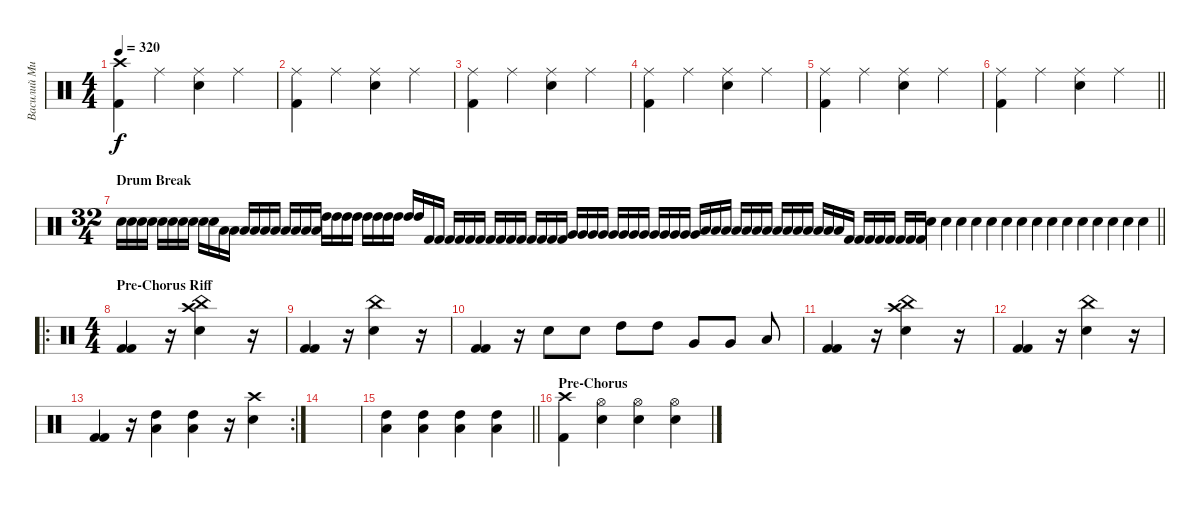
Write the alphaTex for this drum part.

\track ("Василий Михалыч-ударные" "Василий Ми") {instrument percussion}
\staff {score}
\articulation defaults
\ts (4 4)
\tempo 320
\clef neutral
\ks c
("Kick (hit) 2" "Crash high (hit)").4{dy f} "Ride (middle)".4 ("Snare (hit) 2" "Ride (middle)").4 "Ride (middle)".4 |
("Kick (hit) 2" "Ride (middle)").4 "Ride (middle)".4 ("Snare (hit) 2" "Ride (middle)").4 "Ride (middle)".4 |
("Kick (hit) 2" "Ride (middle)").4 "Ride (middle)".4 ("Snare (hit) 2" "Ride (middle)").4 "Ride (middle)".4 |
("Kick (hit) 2" "Ride (middle)").4 "Ride (middle)".4 ("Snare (hit) 2" "Ride (middle)").4 "Ride (middle)".4 |
("Kick (hit) 2" "Ride (middle)").4 "Ride (middle)".4 ("Snare (hit) 2" "Ride (middle)").4 "Ride (middle)".4 |
\barLineRight lightlight
("Kick (hit) 2" "Ride (middle)").4 "Ride (middle)".4 ("Snare (hit) 2" "Ride (middle)").4 "Ride (middle)".4 |
\ts (32 4)
\section ("" "Drum Break")
\barLineRight lightlight "Snare (hit) 2".16 "Snare (hit) 2".16 "Snare (hit) 2".16 "Snare (hit) 2".16 "Snare (hit) 2".16 "Snare (hit) 2".16 "Snare (hit) 2".16 "Snare (hit) 2".16 "Snare (hit) 2".16 "Snare (hit) 2".16 "Low Tom (hit)".16 "Low Tom (hit)".16 "Low Tom (hit)".16 "Low Tom (hit)".16 "Low Tom (hit)".16 "Low Tom (hit)".16 "Low Tom (hit)".16 "Low Tom (hit)".16 "Low Tom (hit)".16 "Low Tom (hit)".16 "High Tom (hit)".16 "High Tom (hit)".16 "High Tom (hit)".16 "High Tom (hit)".16 "High Tom (hit)".16 "High Tom (hit)".16 "High Tom (hit)".16 "High Tom (hit)".16 "High Tom (hit)".16 "High Tom (hit)".16 "Kick (hit) 2".16 "Kick (hit) 2".16 "Kick (hit) 2".16 "Kick (hit) 2".16 "Kick (hit) 2".16 "Kick (hit) 2".16 "Kick (hit) 2".16 "Kick (hit) 2".16 "Kick (hit) 2".16 "Kick (hit) 2".16 "Kick (hit) 2".16 "Kick (hit) 2".16 "Kick (hit) 2".16 "Kick (hit) 2".16 "Very Low Tom (hit)".16 "Very Low Tom (hit)".16 "Very Low Tom (hit)".16 "Very Low Tom (hit)".16 "Very Low Tom (hit)".16 "Very Low Tom (hit)".16 "Very Low Tom (hit)".16 "Very Low Tom (hit)".16 "Very Low Tom (hit)".16 "Very Low Tom (hit)".16 "Very Low Tom (hit)".16 "Very Low Tom (hit)".16 "Very Low Tom (hit)".16 "Low Tom (hit)".16 "Low Tom (hit)".16 "Low Tom (hit)".16 "Low Tom (hit)".16 "Low Tom (hit)".16 "Low Tom (hit)".16 "Low Tom (hit)".16 "Low Tom (hit)".16 "Low Tom (hit)".16 "Low Tom (hit)".16 "Low Tom (hit)".16 "Low Tom (hit)".16 "Low Tom (hit)".16 "Low Tom (hit)".16 "Kick (hit) 2".16 "Kick (hit) 2".16 "Kick (hit) 2".16 "Kick (hit) 2".16 "Kick (hit) 2".16 "Kick (hit) 2".16 "Kick (hit) 2".16 "Kick (hit) 2".16 "Snare (hit) 2".4 "Snare (hit) 2".4 "Snare (hit) 2".4 "Snare (hit) 2".4 "Snare (hit) 2".4 "Snare (hit) 2".4 "Snare (hit) 2".4 "Snare (hit) 2".4 "Snare (hit) 2".4 "Snare (hit) 2".4 "Snare (hit) 2".4 "Snare (hit) 2".4 "Snare (hit) 2".4 "Snare (hit) 2".4 "Snare (hit) 2".4
|
\ro
\ts (4 4)
\section ("" "Pre-Chorus Riff")
("Kick (hit) 2" "Kick (hit) 2").4 r.16 ("Snare (hit) 2" "Crash high (hit)" "China (hit)").4 r.16 |
("Kick (hit) 2" "Kick (hit) 2").4 r.16 ("Snare (hit) 2" "China (hit)").4 r.16 |
("Kick (hit) 2" "Kick (hit) 2").4 r.16 "Snare (hit) 2".8 "Snare (hit) 2".8 "High Tom (hit)".8 "High Tom (hit)".8 "Very Low Tom (hit)".8 "Very Low Tom (hit)".8 "Low Tom (hit)".8 |
("Kick (hit) 2" "Kick (hit) 2").4 r.16 ("Snare (hit) 2" "Crash high (hit)" "China (hit)").4 r.16 |
("Kick (hit) 2" "Kick (hit) 2").4 r.16 ("Snare (hit) 2" "China (hit)").4 r.16 |
\rc 2
("Kick (hit) 2" "Kick (hit) 2").4 r.16 ("Low Tom (hit)" "High Tom (hit)").4 ("Low Tom (hit)" "High Tom (hit)").4 r.16 ("Snare (hit) 2" "Crash high (hit)").4 |
|
\barLineRight lightlight
("Low Tom (hit)" "High Tom (hit)").4 ("Low Tom (hit)" "High Tom (hit)").4 ("Low Tom (hit)" "High Tom (hit)").4 ("Low Tom (hit)" "High Tom (hit)").4 |
\section ("" "Pre-Chorus")
("Kick (hit) 2" "Crash high (hit)").4 ("Electric Snare (hit)" "Hi-Hat (open)").4 ("Electric Snare (hit)" "Hi-Hat (open)").4 ("Electric Snare (hit)" "Hi-Hat (open)").4
